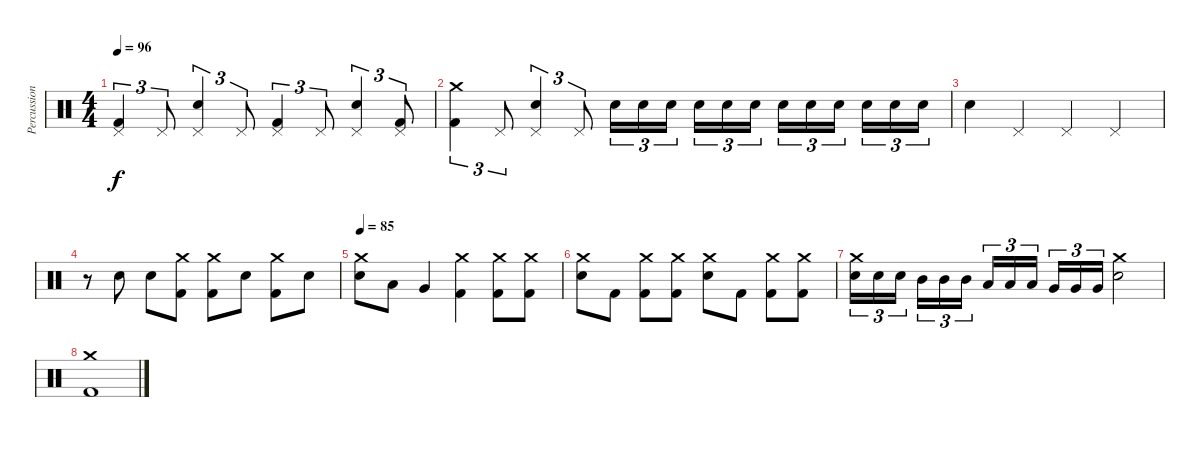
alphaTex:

\track ("Percussioni" "Percussion") {instrument percussion}
\staff {score}
\articulation defaults
\ts (4 4)
\tempo 96
\clef neutral
\ks c
("Kick (hit) 2" "Pedal Hi-Hat (hit)").4{tu (3 2) dy f} "Pedal Hi-Hat (hit)".8{tu (3 2)} ("Electric Snare (hit)" "Pedal Hi-Hat (hit)").4{tu (3 2)} "Pedal Hi-Hat (hit)".8{tu (3 2)} ("Kick (hit) 2" "Pedal Hi-Hat (hit)").4{tu (3 2)} "Pedal Hi-Hat (hit)".8{tu (3 2)} ("Electric Snare (hit)" "Pedal Hi-Hat (hit)").4{tu (3 2)} ("Kick (hit) 2" "Pedal Hi-Hat (hit)").8{tu (3 2)} |
("Kick (hit) 2" "Crash medium (hit)").4{tu (3 2)} "Pedal Hi-Hat (hit)".8{tu (3 2)} ("Electric Snare (hit)" "Pedal Hi-Hat (hit)").4{tu (3 2)} "Pedal Hi-Hat (hit)".8{tu (3 2)} "Electric Snare (hit)".16{tu (3 2)} "Electric Snare (hit)".16{tu (3 2)} "Electric Snare (hit)".16{tu (3 2) beam splitsecondary} "Electric Snare (hit)".16{tu (3 2)} "Electric Snare (hit)".16{tu (3 2)} "Electric Snare (hit)".16{tu (3 2)} "Electric Snare (hit)".16{tu (3 2)} "Electric Snare (hit)".16{tu (3 2)} "Electric Snare (hit)".16{tu (3 2) beam splitsecondary} "Electric Snare (hit)".16{tu (3 2)} "Electric Snare (hit)".16{tu (3 2)} "Electric Snare (hit)".16{tu (3 2)} |
"Electric Snare (hit)".4 "Pedal Hi-Hat (hit)".4 "Pedal Hi-Hat (hit)".4 "Pedal Hi-Hat (hit)".4 |
r.8 "Electric Snare (hit)".8 "Electric Snare (hit)".8 ("Kick (hit) 2" "Crash medium (hit)").8 ("Kick (hit) 2" "Crash medium (hit)").8 "Electric Snare (hit)".8 ("Kick (hit) 2" "Crash medium (hit)").8 "Electric Snare (hit)".8 |
\tempo 85
("Electric Snare (hit)" "Crash medium (hit)").8 "Low Tom (hit)".8 "Very Low Tom (hit)".4 ("Kick (hit) 2" "Crash medium (hit)").4 ("Kick (hit) 2" "Crash medium (hit)").8 ("Kick (hit) 2" "Crash medium (hit)").8 |
("Electric Snare (hit)" "Crash medium (hit)").8 "Kick (hit) 2".8 ("Kick (hit) 2" "Crash medium (hit)").8 ("Kick (hit) 2" "Crash medium (hit)").8 ("Electric Snare (hit)" "Crash medium (hit)").8 "Kick (hit) 2".8 ("Kick (hit) 2" "Crash medium (hit)").8 ("Kick (hit) 2" "Crash medium (hit)").8 |
("Electric Snare (hit)" "Crash medium (hit)").16{tu (3 2)} "Electric Snare (hit)".16{tu (3 2)} "Electric Snare (hit)".16{tu (3 2) beam splitsecondary} "Mid Tom (hit)".16{tu (3 2)} "Mid Tom (hit)".16{tu (3 2)} "Mid Tom (hit)".16{tu (3 2)} "Low Tom (hit)".16{tu (3 2)} "Low Tom (hit)".16{tu (3 2)} "Low Tom (hit)".16{tu (3 2) beam splitsecondary} "Very Low Tom (hit)".16{tu (3 2)} "Very Low Tom (hit)".16{tu (3 2)} "Very Low Tom (hit)".16{tu (3 2)} ("Electric Snare (hit)" "Crash medium (hit)").2 |
("Kick (hit) 2" "Crash medium (hit)").1
